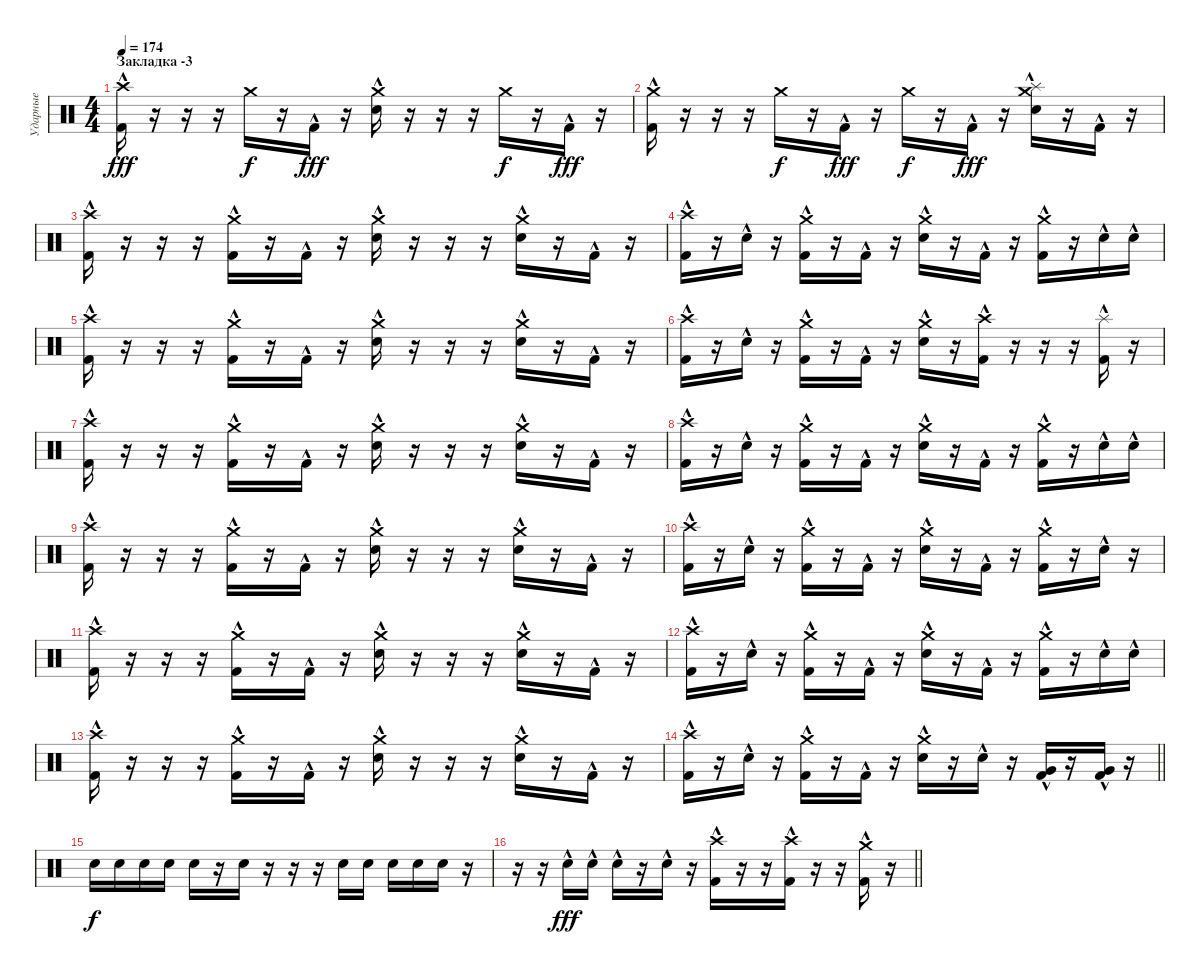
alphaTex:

\track ("Ударные" "Ударные") {instrument percussion}
\staff {score}
\articulation defaults
\ts (4 4)
\section ("" "Закладка -3")
\tempo 174
\clef neutral
\ks c
("Crash high (hit)" "Kick (hit) 2"{hac}).16{dy fff} r.16 r.16 r.16 "Crash medium (hit)".16{dy f} r.16 "Kick (hit) 2"{hac}.16{dy fff} r.16 ("Crash medium (hit)" "Snare (hit) 2"{hac}).16 r.16 r.16 r.16 "Crash medium (hit)".16{dy f} r.16 "Kick (hit) 2"{hac}.16{dy fff} r.16 |
("Crash medium (hit)" "Kick (hit) 2"{hac}).16 r.16 r.16 r.16 "Crash medium (hit)".16{dy f} r.16 "Kick (hit) 2"{hac}.16{dy fff} r.16 "Crash medium (hit)".16{dy f} r.16 "Kick (hit) 2"{hac}.16{dy fff} r.16 ("Crash medium (hit)" "Snare (hit) 2"{hac} "Splash (hit)").16 r.16 "Kick (hit) 2"{hac}.16 r.16 |
("Crash high (hit)" "Kick (hit) 2"{hac}).16 r.16 r.16 r.16 ("Crash medium (hit)" "Kick (hit) 2"{hac}).16 r.16 "Kick (hit) 2"{hac}.16 r.16 ("Crash medium (hit)" "Snare (hit) 2"{hac}).16 r.16 r.16 r.16 ("Crash medium (hit)" "Snare (hit) 2"{hac}).16 r.16 "Kick (hit) 2"{hac}.16 r.16 |
("Crash high (hit)" "Kick (hit) 2"{hac}).16 r.16 "Snare (hit) 2"{hac}.16 r.16 ("Crash medium (hit)" "Kick (hit) 2"{hac}).16 r.16 "Kick (hit) 2"{hac}.16 r.16 ("Crash medium (hit)" "Snare (hit) 2"{hac}).16 r.16 "Kick (hit) 2"{hac}.16 r.16 ("Crash medium (hit)" "Kick (hit) 2"{hac}).16 r.16 "Snare (hit) 2"{hac}.16 "Snare (hit) 2"{hac}.16 |
("Crash high (hit)" "Kick (hit) 2"{hac}).16 r.16 r.16 r.16 ("Crash medium (hit)" "Kick (hit) 2"{hac}).16 r.16 "Kick (hit) 2"{hac}.16 r.16 ("Crash medium (hit)" "Snare (hit) 2"{hac}).16 r.16 r.16 r.16 ("Crash medium (hit)" "Snare (hit) 2"{hac}).16 r.16 "Kick (hit) 2"{hac}.16 r.16 |
("Crash high (hit)" "Kick (hit) 2"{hac}).16 r.16 "Snare (hit) 2"{hac}.16 r.16 ("Crash medium (hit)" "Kick (hit) 2"{hac}).16 r.16 "Kick (hit) 2"{hac}.16 r.16 ("Crash medium (hit)" "Snare (hit) 2"{hac}).16 r.16 ("Kick (hit) 2"{hac} "Crash high (hit)").16 r.16 r.16 r.16 ("Kick (hit) 2"{hac} "Splash (hit)").16 r.16 |
("Crash high (hit)" "Kick (hit) 2"{hac}).16 r.16 r.16 r.16 ("Crash medium (hit)" "Kick (hit) 2"{hac}).16 r.16 "Kick (hit) 2"{hac}.16 r.16 ("Crash medium (hit)" "Snare (hit) 2"{hac}).16 r.16 r.16 r.16 ("Crash medium (hit)" "Snare (hit) 2"{hac}).16 r.16 "Kick (hit) 2"{hac}.16 r.16 |
("Crash high (hit)" "Kick (hit) 2"{hac}).16 r.16 "Snare (hit) 2"{hac}.16 r.16 ("Crash medium (hit)" "Kick (hit) 2"{hac}).16 r.16 "Kick (hit) 2"{hac}.16 r.16 ("Crash medium (hit)" "Snare (hit) 2"{hac}).16 r.16 "Kick (hit) 2"{hac}.16 r.16 ("Crash medium (hit)" "Kick (hit) 2"{hac}).16 r.16 "Snare (hit) 2"{hac}.16 "Snare (hit) 2"{hac}.16 |
("Crash high (hit)" "Kick (hit) 2"{hac}).16 r.16 r.16 r.16 ("Crash medium (hit)" "Kick (hit) 2"{hac}).16 r.16 "Kick (hit) 2"{hac}.16 r.16 ("Crash medium (hit)" "Snare (hit) 2"{hac}).16 r.16 r.16 r.16 ("Crash medium (hit)" "Snare (hit) 2"{hac}).16 r.16 "Kick (hit) 2"{hac}.16 r.16 |
("Crash high (hit)" "Kick (hit) 2"{hac}).16 r.16 "Snare (hit) 2"{hac}.16 r.16 ("Crash medium (hit)" "Kick (hit) 2"{hac}).16 r.16 "Kick (hit) 2"{hac}.16 r.16 ("Crash medium (hit)" "Snare (hit) 2"{hac}).16 r.16 "Kick (hit) 2"{hac}.16 r.16 ("Crash medium (hit)" "Kick (hit) 2"{hac}).16 r.16 "Snare (hit) 2"{hac}.16 r.16 |
("Crash high (hit)" "Kick (hit) 2"{hac}).16 r.16 r.16 r.16 ("Crash medium (hit)" "Kick (hit) 2"{hac}).16 r.16 "Kick (hit) 2"{hac}.16 r.16 ("Crash medium (hit)" "Snare (hit) 2"{hac}).16 r.16 r.16 r.16 ("Crash medium (hit)" "Snare (hit) 2"{hac}).16 r.16 "Kick (hit) 2"{hac}.16 r.16 |
("Crash high (hit)" "Kick (hit) 2"{hac}).16 r.16 "Snare (hit) 2"{hac}.16 r.16 ("Crash medium (hit)" "Kick (hit) 2"{hac}).16 r.16 "Kick (hit) 2"{hac}.16 r.16 ("Crash medium (hit)" "Snare (hit) 2"{hac}).16 r.16 "Kick (hit) 2"{hac}.16 r.16 ("Crash medium (hit)" "Kick (hit) 2"{hac}).16 r.16 "Snare (hit) 2"{hac}.16 "Snare (hit) 2"{hac}.16 |
("Crash high (hit)" "Kick (hit) 2"{hac}).16 r.16 r.16 r.16 ("Crash medium (hit)" "Kick (hit) 2"{hac}).16 r.16 "Kick (hit) 2"{hac}.16 r.16 ("Crash medium (hit)" "Snare (hit) 2"{hac}).16 r.16 r.16 r.16 ("Crash medium (hit)" "Snare (hit) 2"{hac}).16 r.16 "Kick (hit) 2"{hac}.16 r.16 |
\barLineRight lightlight
("Crash high (hit)" "Kick (hit) 2"{hac}).16 r.16 "Snare (hit) 2"{hac}.16 r.16 ("Crash medium (hit)" "Kick (hit) 2"{hac}).16 r.16 "Kick (hit) 2"{hac}.16 r.16 ("Crash medium (hit)" "Snare (hit) 2"{hac}).16 r.16 "Snare (hit) 2"{hac}.16 r.16 ("Very Low Tom (hit)"{hac} "Kick (hit) 2").16 r.16 ("Very Low Tom (hit)"{hac} "Kick (hit) 2").16 r.16 |
\section ("" "")
"Snare (hit) 2".16{dy f} "Snare (hit) 2".16 "Snare (hit) 2".16 "Snare (hit) 2".16 "Snare (hit) 2".16 r.16 "Snare (hit) 2".16 r.16 r.16 r.16 "Snare (hit) 2".16 "Snare (hit) 2".16 "Snare (hit) 2".16 "Snare (hit) 2".16 "Snare (hit) 2".16 r.16 |
\barLineRight lightlight
r.16 r.16 "Snare (hit) 2"{hac}.16{dy fff} "Snare (hit) 2"{hac}.16 "Snare (hit) 2"{hac}.16 r.16 "Snare (hit) 2"{hac}.16 r.16 ("Kick (hit) 2"{hac} "Crash high (hit)").16 r.16 r.16 ("Kick (hit) 2"{hac} "Crash high (hit)").16 r.16 r.16 ("Kick (hit) 2"{hac} "Crash medium (hit)").16 r.16
